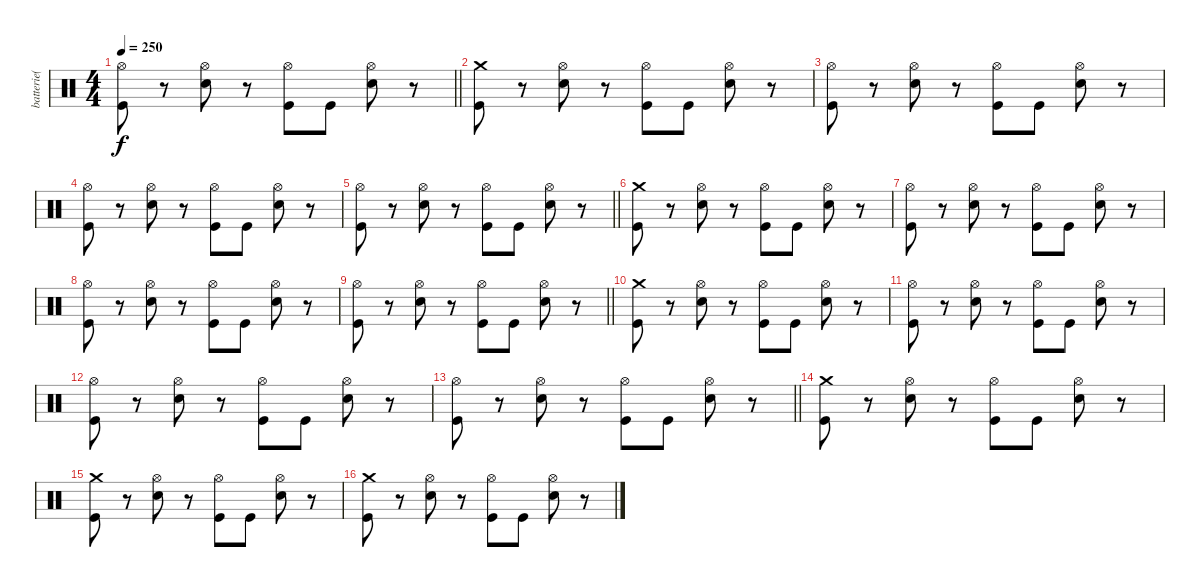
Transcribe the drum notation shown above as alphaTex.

\track ("batterie( Yureesh )" "batterie( ") {instrument percussion}
\staff {score}
\articulation defaults
\ts (4 4)
\tempo 250
\clef neutral
\barLineRight lightlight
\ks c
("Hi-Hat (open)" "Kick (hit)").8{dy f} r.8 ("Hi-Hat (open)" "Snare (hit) 2").8 r.8 ("Hi-Hat (open)" "Kick (hit)").8 "Kick (hit)".8 ("Hi-Hat (open)" "Snare (hit) 2").8 r.8 |
("Crash medium (hit)" "Kick (hit)").8 r.8 ("Hi-Hat (open)" "Snare (hit) 2").8 r.8 ("Hi-Hat (open)" "Kick (hit)").8 "Kick (hit)".8 ("Hi-Hat (open)" "Snare (hit) 2").8 r.8 |
("Hi-Hat (open)" "Kick (hit)").8 r.8 ("Hi-Hat (open)" "Snare (hit) 2").8 r.8 ("Hi-Hat (open)" "Kick (hit)").8 "Kick (hit)".8 ("Hi-Hat (open)" "Snare (hit) 2").8 r.8 |
("Hi-Hat (open)" "Kick (hit)").8 r.8 ("Hi-Hat (open)" "Snare (hit) 2").8 r.8 ("Hi-Hat (open)" "Kick (hit)").8 "Kick (hit)".8 ("Hi-Hat (open)" "Snare (hit) 2").8 r.8 |
\barLineRight lightlight
("Hi-Hat (open)" "Kick (hit)").8 r.8 ("Hi-Hat (open)" "Snare (hit) 2").8 r.8 ("Hi-Hat (open)" "Kick (hit)").8 "Kick (hit)".8 ("Hi-Hat (open)" "Snare (hit) 2").8 r.8 |
("Crash medium (hit)" "Kick (hit)").8 r.8 ("Hi-Hat (open)" "Snare (hit) 2").8 r.8 ("Hi-Hat (open)" "Kick (hit)").8 "Kick (hit)".8 ("Hi-Hat (open)" "Snare (hit) 2").8 r.8 |
("Hi-Hat (open)" "Kick (hit)").8 r.8 ("Hi-Hat (open)" "Snare (hit) 2").8 r.8 ("Hi-Hat (open)" "Kick (hit)").8 "Kick (hit)".8 ("Hi-Hat (open)" "Snare (hit) 2").8 r.8 |
("Hi-Hat (open)" "Kick (hit)").8 r.8 ("Hi-Hat (open)" "Snare (hit) 2").8 r.8 ("Hi-Hat (open)" "Kick (hit)").8 "Kick (hit)".8 ("Hi-Hat (open)" "Snare (hit) 2").8 r.8 |
\barLineRight lightlight
("Hi-Hat (open)" "Kick (hit)").8 r.8 ("Hi-Hat (open)" "Snare (hit) 2").8 r.8 ("Hi-Hat (open)" "Kick (hit)").8 "Kick (hit)".8 ("Hi-Hat (open)" "Snare (hit) 2").8 r.8 |
("Crash medium (hit)" "Kick (hit)").8 r.8 ("Hi-Hat (open)" "Snare (hit) 2").8 r.8 ("Hi-Hat (open)" "Kick (hit)").8 "Kick (hit)".8 ("Hi-Hat (open)" "Snare (hit) 2").8 r.8 |
("Hi-Hat (open)" "Kick (hit)").8 r.8 ("Hi-Hat (open)" "Snare (hit) 2").8 r.8 ("Hi-Hat (open)" "Kick (hit)").8 "Kick (hit)".8 ("Hi-Hat (open)" "Snare (hit) 2").8 r.8 |
("Hi-Hat (open)" "Kick (hit)").8 r.8 ("Hi-Hat (open)" "Snare (hit) 2").8 r.8 ("Hi-Hat (open)" "Kick (hit)").8 "Kick (hit)".8 ("Hi-Hat (open)" "Snare (hit) 2").8 r.8 |
\barLineRight lightlight
("Hi-Hat (open)" "Kick (hit)").8 r.8 ("Hi-Hat (open)" "Snare (hit) 2").8 r.8 ("Hi-Hat (open)" "Kick (hit)").8 "Kick (hit)".8 ("Hi-Hat (open)" "Snare (hit) 2").8 r.8 |
("Crash medium (hit)" "Kick (hit)").8 r.8 ("Hi-Hat (open)" "Snare (hit) 2").8 r.8 ("Hi-Hat (open)" "Kick (hit)").8 "Kick (hit)".8 ("Hi-Hat (open)" "Snare (hit) 2").8 r.8 |
("Crash medium (hit)" "Kick (hit)").8 r.8 ("Hi-Hat (open)" "Snare (hit) 2").8 r.8 ("Hi-Hat (open)" "Kick (hit)").8 "Kick (hit)".8 ("Hi-Hat (open)" "Snare (hit) 2").8 r.8 |
("Crash medium (hit)" "Kick (hit)").8 r.8 ("Hi-Hat (open)" "Snare (hit) 2").8 r.8 ("Hi-Hat (open)" "Kick (hit)").8 "Kick (hit)".8 ("Hi-Hat (open)" "Snare (hit) 2").8 r.8
